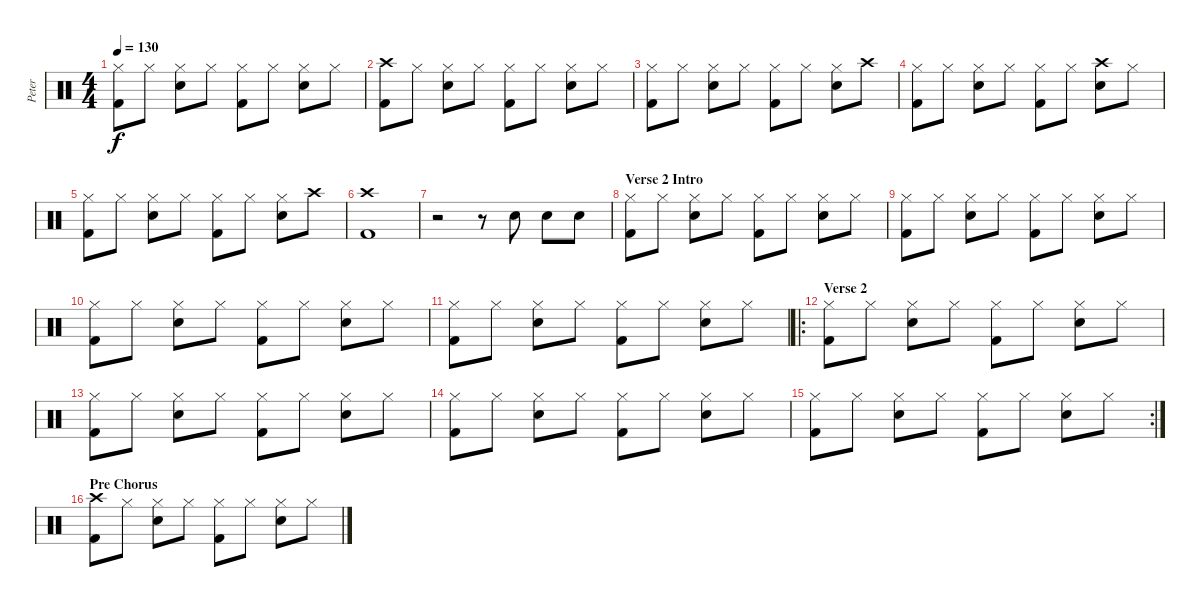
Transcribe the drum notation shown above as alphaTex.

\track ("Peter" "Peter") {instrument percussion}
\staff {score}
\articulation defaults
\ts (4 4)
\tempo 130
\clef neutral
\ks c
("Hi-Hat (closed)" "Kick (hit) 2").8{dy f} "Hi-Hat (closed)".8 ("Hi-Hat (closed)" "Snare (hit) 2").8 "Hi-Hat (closed)".8 ("Hi-Hat (closed)" "Kick (hit) 2").8 "Hi-Hat (closed)".8 ("Hi-Hat (closed)" "Snare (hit) 2").8 "Hi-Hat (closed)".8 |
("Crash high (hit)" "Kick (hit) 2").8 "Hi-Hat (closed)".8 ("Hi-Hat (closed)" "Snare (hit) 2").8 "Hi-Hat (closed)".8 ("Hi-Hat (closed)" "Kick (hit) 2").8 "Hi-Hat (closed)".8 ("Hi-Hat (closed)" "Snare (hit) 2").8 "Hi-Hat (closed)".8 |
("Hi-Hat (closed)" "Kick (hit) 2").8 "Hi-Hat (closed)".8 ("Hi-Hat (closed)" "Snare (hit) 2").8 "Hi-Hat (closed)".8 ("Hi-Hat (closed)" "Kick (hit) 2").8 "Hi-Hat (closed)".8 ("Hi-Hat (closed)" "Snare (hit) 2").8 "Crash high (hit)".8 |
("Hi-Hat (closed)" "Kick (hit) 2").8 "Hi-Hat (closed)".8 ("Hi-Hat (closed)" "Snare (hit) 2").8 "Hi-Hat (closed)".8 ("Hi-Hat (closed)" "Kick (hit) 2").8 "Hi-Hat (closed)".8 ("Crash high (hit)" "Snare (hit) 2").8 "Hi-Hat (closed)".8 |
("Hi-Hat (closed)" "Kick (hit) 2").8 "Hi-Hat (closed)".8 ("Hi-Hat (closed)" "Snare (hit) 2").8 "Hi-Hat (closed)".8 ("Hi-Hat (closed)" "Kick (hit) 2").8 "Hi-Hat (closed)".8 ("Hi-Hat (closed)" "Snare (hit) 2").8 "Crash high (hit)".8 |
("Crash high (hit)" "Kick (hit) 2").1 |
r.2 r.8 "Electric Snare (hit)".8 "Electric Snare (hit)".8 "Electric Snare (hit)".8 |
\section ("" "Verse 2 Intro")
("Hi-Hat (closed)" "Kick (hit) 2").8 "Hi-Hat (closed)".8 ("Hi-Hat (closed)" "Electric Snare (hit)").8 "Hi-Hat (closed)".8 ("Hi-Hat (closed)" "Kick (hit) 2").8 "Hi-Hat (closed)".8 ("Hi-Hat (closed)" "Electric Snare (hit)").8 "Hi-Hat (closed)".8 |
("Hi-Hat (closed)" "Kick (hit) 2").8 "Hi-Hat (closed)".8 ("Hi-Hat (closed)" "Electric Snare (hit)").8 "Hi-Hat (closed)".8 ("Hi-Hat (closed)" "Kick (hit) 2").8 "Hi-Hat (closed)".8 ("Hi-Hat (closed)" "Electric Snare (hit)").8 "Hi-Hat (closed)".8 |
("Hi-Hat (closed)" "Kick (hit) 2").8 "Hi-Hat (closed)".8 ("Hi-Hat (closed)" "Electric Snare (hit)").8 "Hi-Hat (closed)".8 ("Hi-Hat (closed)" "Kick (hit) 2").8 "Hi-Hat (closed)".8 ("Hi-Hat (closed)" "Electric Snare (hit)").8 "Hi-Hat (closed)".8 |
("Hi-Hat (closed)" "Kick (hit) 2").8 "Hi-Hat (closed)".8 ("Hi-Hat (closed)" "Electric Snare (hit)").8 "Hi-Hat (closed)".8 ("Hi-Hat (closed)" "Kick (hit) 2").8 "Hi-Hat (closed)".8 ("Hi-Hat (closed)" "Electric Snare (hit)").8 "Hi-Hat (closed)".8 |
\ro
\section ("" "Verse 2")
("Hi-Hat (closed)" "Kick (hit) 2").8 "Hi-Hat (closed)".8 ("Hi-Hat (closed)" "Electric Snare (hit)").8 "Hi-Hat (closed)".8 ("Hi-Hat (closed)" "Kick (hit) 2").8 "Hi-Hat (closed)".8 ("Hi-Hat (closed)" "Electric Snare (hit)").8 "Hi-Hat (closed)".8 |
("Hi-Hat (closed)" "Kick (hit) 2").8 "Hi-Hat (closed)".8 ("Hi-Hat (closed)" "Electric Snare (hit)").8 "Hi-Hat (closed)".8 ("Hi-Hat (closed)" "Kick (hit) 2").8 "Hi-Hat (closed)".8 ("Hi-Hat (closed)" "Electric Snare (hit)").8 "Hi-Hat (closed)".8 |
("Hi-Hat (closed)" "Kick (hit) 2").8 "Hi-Hat (closed)".8 ("Hi-Hat (closed)" "Electric Snare (hit)").8 "Hi-Hat (closed)".8 ("Hi-Hat (closed)" "Kick (hit) 2").8 "Hi-Hat (closed)".8 ("Hi-Hat (closed)" "Electric Snare (hit)").8 "Hi-Hat (closed)".8 |
\rc 2
("Hi-Hat (closed)" "Kick (hit) 2").8 "Hi-Hat (closed)".8 ("Hi-Hat (closed)" "Electric Snare (hit)").8 "Hi-Hat (closed)".8 ("Hi-Hat (closed)" "Kick (hit) 2").8 "Hi-Hat (closed)".8 ("Hi-Hat (closed)" "Electric Snare (hit)").8 "Hi-Hat (closed)".8 |
\section ("" "Pre Chorus")
("Crash high (hit)" "Kick (hit) 2").8 "Hi-Hat (closed)".8 ("Hi-Hat (closed)" "Snare (hit) 2").8 "Hi-Hat (closed)".8 ("Hi-Hat (closed)" "Kick (hit) 2").8 "Hi-Hat (closed)".8 ("Hi-Hat (closed)" "Snare (hit) 2").8 "Hi-Hat (closed)".8
